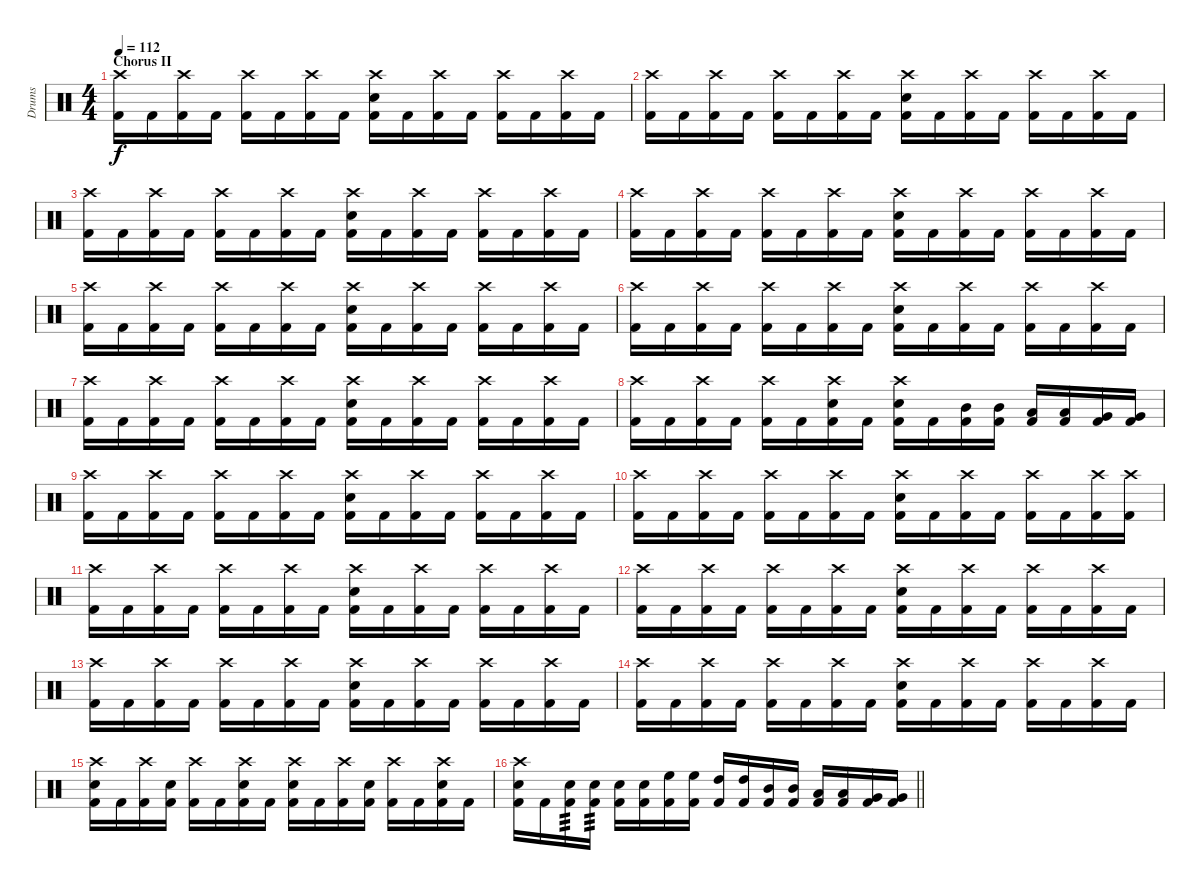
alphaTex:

\track ("Drums" "Drums") {instrument percussion}
\staff {score}
\articulation defaults
\ts (4 4)
\section ("" "Chorus II")
\tempo 112
\clef neutral
\ks c
("Crash high (hit)" "Kick (hit) 2").16{dy f} "Kick (hit) 2".16 ("Kick (hit) 2" "Crash high (hit)").16 "Kick (hit) 2".16 ("Crash high (hit)" "Kick (hit) 2").16 "Kick (hit) 2".16 ("Kick (hit) 2" "Crash high (hit)").16 "Kick (hit) 2".16 ("Crash high (hit)" "Kick (hit) 2" "Snare (hit) 2").16 "Kick (hit) 2".16 ("Kick (hit) 2" "Crash high (hit)").16 "Kick (hit) 2".16 ("Crash high (hit)" "Kick (hit) 2").16 "Kick (hit) 2".16 ("Kick (hit) 2" "Crash high (hit)").16 "Kick (hit) 2".16 |
("Crash high (hit)" "Kick (hit) 2").16 "Kick (hit) 2".16 ("Kick (hit) 2" "Crash high (hit)").16 "Kick (hit) 2".16 ("Crash high (hit)" "Kick (hit) 2").16 "Kick (hit) 2".16 ("Kick (hit) 2" "Crash high (hit)").16 "Kick (hit) 2".16 ("Crash high (hit)" "Kick (hit) 2" "Snare (hit) 2").16 "Kick (hit) 2".16 ("Kick (hit) 2" "Crash high (hit)").16 "Kick (hit) 2".16 ("Crash high (hit)" "Kick (hit) 2").16 "Kick (hit) 2".16 ("Kick (hit) 2" "Crash high (hit)").16 "Kick (hit) 2".16 |
("Crash high (hit)" "Kick (hit) 2").16 "Kick (hit) 2".16 ("Kick (hit) 2" "Crash high (hit)").16 "Kick (hit) 2".16 ("Crash high (hit)" "Kick (hit) 2").16 "Kick (hit) 2".16 ("Kick (hit) 2" "Crash high (hit)").16 "Kick (hit) 2".16 ("Crash high (hit)" "Kick (hit) 2" "Snare (hit) 2").16 "Kick (hit) 2".16 ("Kick (hit) 2" "Crash high (hit)").16 "Kick (hit) 2".16 ("Crash high (hit)" "Kick (hit) 2").16 "Kick (hit) 2".16 ("Kick (hit) 2" "Crash high (hit)").16 "Kick (hit) 2".16 |
("Crash high (hit)" "Kick (hit) 2").16 "Kick (hit) 2".16 ("Kick (hit) 2" "Crash high (hit)").16 "Kick (hit) 2".16 ("Crash high (hit)" "Kick (hit) 2").16 "Kick (hit) 2".16 ("Kick (hit) 2" "Crash high (hit)").16 "Kick (hit) 2".16 ("Crash high (hit)" "Kick (hit) 2" "Snare (hit) 2").16 "Kick (hit) 2".16 ("Kick (hit) 2" "Crash high (hit)").16 "Kick (hit) 2".16 ("Crash high (hit)" "Kick (hit) 2").16 "Kick (hit) 2".16 ("Kick (hit) 2" "Crash high (hit)").16 "Kick (hit) 2".16 |
("Crash high (hit)" "Kick (hit) 2").16 "Kick (hit) 2".16 ("Kick (hit) 2" "Crash high (hit)").16 "Kick (hit) 2".16 ("Crash high (hit)" "Kick (hit) 2").16 "Kick (hit) 2".16 ("Kick (hit) 2" "Crash high (hit)").16 "Kick (hit) 2".16 ("Crash high (hit)" "Kick (hit) 2" "Snare (hit) 2").16 "Kick (hit) 2".16 ("Kick (hit) 2" "Crash high (hit)").16 "Kick (hit) 2".16 ("Crash high (hit)" "Kick (hit) 2").16 "Kick (hit) 2".16 ("Kick (hit) 2" "Crash high (hit)").16 "Kick (hit) 2".16 |
("Crash high (hit)" "Kick (hit) 2").16 "Kick (hit) 2".16 ("Kick (hit) 2" "Crash high (hit)").16 "Kick (hit) 2".16 ("Crash high (hit)" "Kick (hit) 2").16 "Kick (hit) 2".16 ("Kick (hit) 2" "Crash high (hit)").16 "Kick (hit) 2".16 ("Crash high (hit)" "Kick (hit) 2" "Snare (hit) 2").16 "Kick (hit) 2".16 ("Kick (hit) 2" "Crash high (hit)").16 "Kick (hit) 2".16 ("Crash high (hit)" "Kick (hit) 2").16 "Kick (hit) 2".16 ("Kick (hit) 2" "Crash high (hit)").16 "Kick (hit) 2".16 |
("Crash high (hit)" "Kick (hit) 2").16 "Kick (hit) 2".16 ("Kick (hit) 2" "Crash high (hit)").16 "Kick (hit) 2".16 ("Crash high (hit)" "Kick (hit) 2").16 "Kick (hit) 2".16 ("Kick (hit) 2" "Crash high (hit)").16 "Kick (hit) 2".16 ("Crash high (hit)" "Kick (hit) 2" "Snare (hit) 2").16 "Kick (hit) 2".16 ("Kick (hit) 2" "Crash high (hit)").16 "Kick (hit) 2".16 ("Crash high (hit)" "Kick (hit) 2").16 "Kick (hit) 2".16 ("Kick (hit) 2" "Crash high (hit)").16 "Kick (hit) 2".16 |
("Crash high (hit)" "Kick (hit) 2").16 "Kick (hit) 2".16 ("Kick (hit) 2" "Crash high (hit)").16 "Kick (hit) 2".16 ("Crash high (hit)" "Kick (hit) 2").16 "Kick (hit) 2".16 ("Kick (hit) 2" "Crash high (hit)" "Snare (hit) 2").16 "Kick (hit) 2".16 ("Crash high (hit)" "Kick (hit) 2" "Snare (hit) 2").16 "Kick (hit) 2".16 ("Kick (hit) 2" "Mid Tom (hit)").16 ("Kick (hit) 2" "Mid Tom (hit)").16 ("Low Tom (hit)" "Kick (hit) 2").16 ("Kick (hit) 2" "Low Tom (hit)").16 ("Kick (hit) 2" "Very Low Tom (hit)").16 ("Kick (hit) 2" "Very Low Tom (hit)").16 |
("Crash high (hit)" "Kick (hit) 2").16 "Kick (hit) 2".16 ("Kick (hit) 2" "Crash high (hit)").16 "Kick (hit) 2".16 ("Crash high (hit)" "Kick (hit) 2").16 "Kick (hit) 2".16 ("Kick (hit) 2" "Crash high (hit)").16 "Kick (hit) 2".16 ("Crash high (hit)" "Kick (hit) 2" "Snare (hit) 2").16 "Kick (hit) 2".16 ("Kick (hit) 2" "Crash high (hit)").16 "Kick (hit) 2".16 ("Crash high (hit)" "Kick (hit) 2").16 "Kick (hit) 2".16 ("Kick (hit) 2" "Crash high (hit)").16 "Kick (hit) 2".16 |
("Crash high (hit)" "Kick (hit) 2").16 "Kick (hit) 2".16 ("Kick (hit) 2" "Crash high (hit)").16 "Kick (hit) 2".16 ("Crash high (hit)" "Kick (hit) 2").16 "Kick (hit) 2".16 ("Kick (hit) 2" "Crash high (hit)").16 "Kick (hit) 2".16 ("Crash high (hit)" "Kick (hit) 2" "Snare (hit) 2").16 "Kick (hit) 2".16 ("Kick (hit) 2" "Crash high (hit)").16 "Kick (hit) 2".16 ("Crash high (hit)" "Kick (hit) 2").16 "Kick (hit) 2".16 ("Kick (hit) 2" "Crash high (hit)").16 ("Crash high (hit)" "Kick (hit) 2").16 |
("Crash high (hit)" "Kick (hit) 2").16 "Kick (hit) 2".16 ("Kick (hit) 2" "Crash high (hit)").16 "Kick (hit) 2".16 ("Crash high (hit)" "Kick (hit) 2").16 "Kick (hit) 2".16 ("Kick (hit) 2" "Crash high (hit)").16 "Kick (hit) 2".16 ("Crash high (hit)" "Kick (hit) 2" "Snare (hit) 2").16 "Kick (hit) 2".16 ("Kick (hit) 2" "Crash high (hit)").16 "Kick (hit) 2".16 ("Crash high (hit)" "Kick (hit) 2").16 "Kick (hit) 2".16 ("Kick (hit) 2" "Crash high (hit)").16 "Kick (hit) 2".16 |
("Crash high (hit)" "Kick (hit) 2").16 "Kick (hit) 2".16 ("Kick (hit) 2" "Crash high (hit)").16 "Kick (hit) 2".16 ("Crash high (hit)" "Kick (hit) 2").16 "Kick (hit) 2".16 ("Kick (hit) 2" "Crash high (hit)").16 "Kick (hit) 2".16 ("Crash high (hit)" "Kick (hit) 2" "Snare (hit) 2").16 "Kick (hit) 2".16 ("Kick (hit) 2" "Crash high (hit)").16 "Kick (hit) 2".16 ("Crash high (hit)" "Kick (hit) 2").16 "Kick (hit) 2".16 ("Kick (hit) 2" "Crash high (hit)").16 "Kick (hit) 2".16 |
("Crash high (hit)" "Kick (hit) 2").16 "Kick (hit) 2".16 ("Kick (hit) 2" "Crash high (hit)").16 "Kick (hit) 2".16 ("Crash high (hit)" "Kick (hit) 2").16 "Kick (hit) 2".16 ("Kick (hit) 2" "Crash high (hit)").16 "Kick (hit) 2".16 ("Crash high (hit)" "Kick (hit) 2" "Snare (hit) 2").16 "Kick (hit) 2".16 ("Kick (hit) 2" "Crash high (hit)").16 "Kick (hit) 2".16 ("Crash high (hit)" "Kick (hit) 2").16 "Kick (hit) 2".16 ("Kick (hit) 2" "Crash high (hit)").16 "Kick (hit) 2".16 |
("Crash high (hit)" "Kick (hit) 2").16 "Kick (hit) 2".16 ("Kick (hit) 2" "Crash high (hit)").16 "Kick (hit) 2".16 ("Crash high (hit)" "Kick (hit) 2").16 "Kick (hit) 2".16 ("Kick (hit) 2" "Crash high (hit)").16 "Kick (hit) 2".16 ("Crash high (hit)" "Kick (hit) 2" "Snare (hit) 2").16 "Kick (hit) 2".16 ("Kick (hit) 2" "Crash high (hit)").16 "Kick (hit) 2".16 ("Crash high (hit)" "Kick (hit) 2").16 "Kick (hit) 2".16 ("Kick (hit) 2" "Crash high (hit)").16 "Kick (hit) 2".16 |
("Crash high (hit)" "Kick (hit) 2" "Snare (hit) 2").16 "Kick (hit) 2".16 ("Kick (hit) 2" "Crash high (hit)").16 ("Kick (hit) 2" "Snare (hit) 2").16 ("Crash high (hit)" "Kick (hit) 2").16 "Kick (hit) 2".16 ("Kick (hit) 2" "Crash high (hit)" "Snare (hit) 2").16 "Kick (hit) 2".16 ("Crash high (hit)" "Kick (hit) 2" "Snare (hit) 2").16 "Kick (hit) 2".16 ("Kick (hit) 2" "Crash high (hit)").16 ("Kick (hit) 2" "Snare (hit) 2").16 ("Crash high (hit)" "Kick (hit) 2").16 "Kick (hit) 2".16 ("Kick (hit) 2" "Crash high (hit)" "Snare (hit) 2").16 "Kick (hit) 2".16 |
\barLineRight lightlight
("Crash high (hit)" "Kick (hit) 2" "Snare (hit) 2").16 "Kick (hit) 2".16 ("Kick (hit) 2" "Snare (hit) 2").16{tp 3} ("Kick (hit) 2" "Snare (hit) 2").16{tp 3} ("Snare (hit) 2" "Kick (hit) 2").16 ("Kick (hit) 2" "Snare (hit) 2").16 ("Kick (hit) 2" "High Floor Tom (hit)").16 ("Kick (hit) 2" "High Floor Tom (hit)").16 ("High Tom (hit)" "Kick (hit) 2").16 ("Kick (hit) 2" "High Tom (hit)").16 ("Kick (hit) 2" "Mid Tom (hit)").16 ("Kick (hit) 2" "Mid Tom (hit)").16 ("Low Tom (hit)" "Kick (hit) 2").16 ("Kick (hit) 2" "Low Tom (hit)").16 ("Kick (hit) 2" "Very Low Tom (hit)").16 ("Kick (hit) 2" "Very Low Tom (hit)").16
